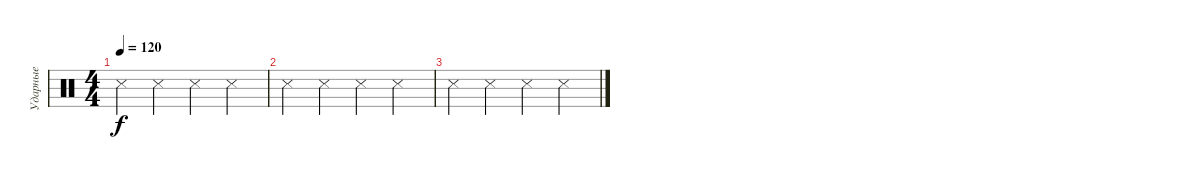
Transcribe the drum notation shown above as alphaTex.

\track ("Ударные" "Ударные") {mute instrument percussion}
\staff {score}
\articulation defaults
\ts (4 4)
\tempo 120
\clef neutral
\ks c "Metronome (hit)".4{dy f} "Metronome (hit)".4 "Metronome (hit)".4 "Metronome (hit)".4
|
"Metronome (hit)".4 "Metronome (hit)".4 "Metronome (hit)".4 "Metronome (hit)".4 |
"Metronome (hit)".4 "Metronome (hit)".4 "Metronome (hit)".4 "Metronome (hit)".4
